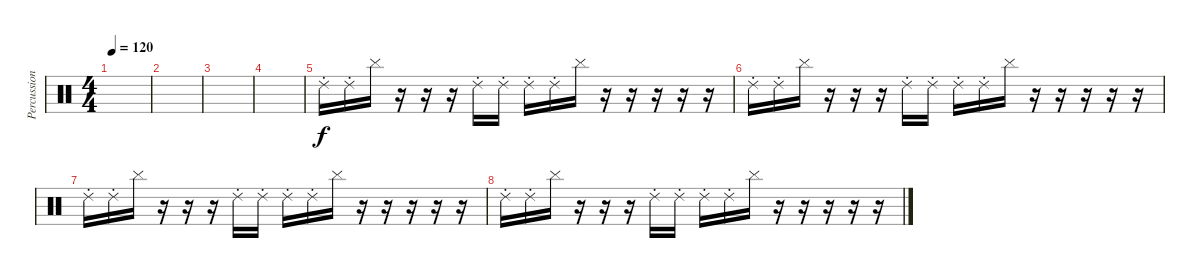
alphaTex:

\track ("Percussions" "Percussion") {instrument percussion}
\staff {score}
\articulation defaults
\ts (4 4)
\tempo 120
\clef neutral
\ks c
|
|
|
|
"Ride (choke) 2".16{volume 13} "Ride (choke) 2".16 "Cymbal (hit)".16 r.16 r.16 r.16 "Ride (choke) 2".16 "Ride (choke) 2".16 "Ride (choke) 2".16 "Ride (choke) 2".16 "Cymbal (hit)".16 r.16 r.16 r.16 r.16 r.16 |
"Ride (choke) 2".16{volume 13} "Ride (choke) 2".16 "Cymbal (hit)".16 r.16 r.16 r.16 "Ride (choke) 2".16 "Ride (choke) 2".16 "Ride (choke) 2".16 "Ride (choke) 2".16 "Cymbal (hit)".16 r.16 r.16 r.16 r.16 r.16 |
"Ride (choke) 2".16{volume 13} "Ride (choke) 2".16 "Cymbal (hit)".16 r.16 r.16 r.16 "Ride (choke) 2".16 "Ride (choke) 2".16 "Ride (choke) 2".16 "Ride (choke) 2".16 "Cymbal (hit)".16 r.16 r.16 r.16 r.16 r.16 |
"Ride (choke) 2".16{volume 13} "Ride (choke) 2".16 "Cymbal (hit)".16 r.16 r.16 r.16 "Ride (choke) 2".16 "Ride (choke) 2".16 "Ride (choke) 2".16 "Ride (choke) 2".16 "Cymbal (hit)".16 r.16 r.16 r.16 r.16 r.16
